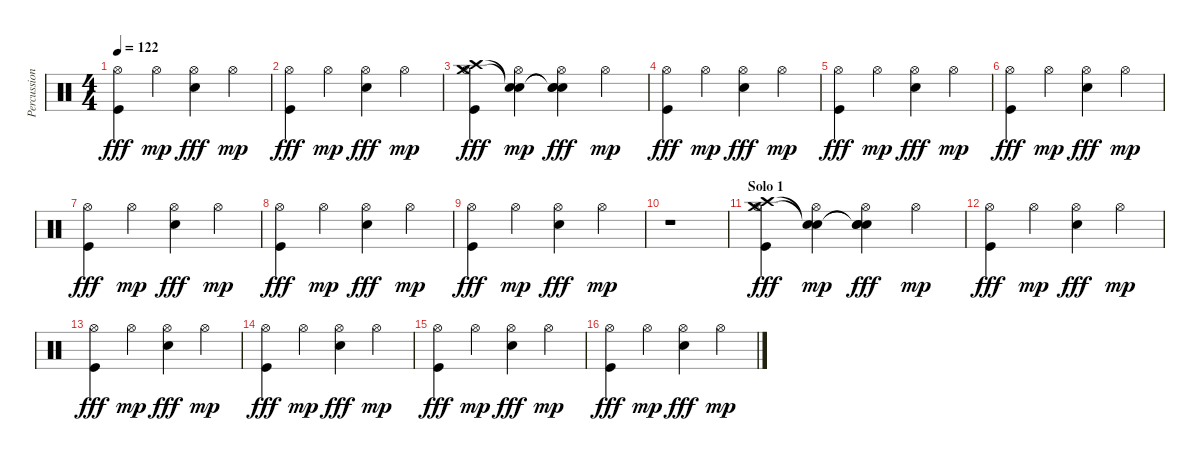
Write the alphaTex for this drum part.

\track ("Percussion" "Percussion") {instrument percussion}
\staff {score}
\articulation defaults
\ts (4 4)
\tempo 122
\clef neutral
\ks c
("Hi-Hat (open)" "Kick (hit)").4{dy fff} "Hi-Hat (open)".4{dy mp} ("Hi-Hat (open)" "Snare (hit) 2").4{dy fff} "Hi-Hat (open)".4{dy mp} |
("Hi-Hat (open)" "Kick (hit)").4{dy fff} "Hi-Hat (open)".4{dy mp} ("Hi-Hat (open)" "Snare (hit) 2").4{dy fff} "Hi-Hat (open)".4{dy mp} |
("Hi-Hat (open)" "Crash high (hit)" "Crash medium (hit)" "Kick (hit)").4{dy fff} ("Hi-Hat (open)" "Snare (hit)"{t} "Snare (hit)"{t}).4{dy mp} ("Hi-Hat (open)" "Snare (hit)"{t} "Snare (hit)"{t} "Snare (hit) 2").4{dy fff} "Hi-Hat (open)".4{dy mp} |
("Hi-Hat (open)" "Kick (hit)").4{dy fff} "Hi-Hat (open)".4{dy mp} ("Hi-Hat (open)" "Snare (hit) 2").4{dy fff} "Hi-Hat (open)".4{dy mp} |
("Hi-Hat (open)" "Kick (hit)").4{dy fff} "Hi-Hat (open)".4{dy mp} ("Hi-Hat (open)" "Snare (hit) 2").4{dy fff} "Hi-Hat (open)".4{dy mp} |
("Hi-Hat (open)" "Kick (hit)").4{dy fff} "Hi-Hat (open)".4{dy mp} ("Hi-Hat (open)" "Snare (hit) 2").4{dy fff} "Hi-Hat (open)".4{dy mp} |
("Hi-Hat (open)" "Kick (hit)").4{dy fff} "Hi-Hat (open)".4{dy mp} ("Hi-Hat (open)" "Snare (hit) 2").4{dy fff} "Hi-Hat (open)".4{dy mp} |
("Hi-Hat (open)" "Kick (hit)").4{dy fff} "Hi-Hat (open)".4{dy mp} ("Hi-Hat (open)" "Snare (hit) 2").4{dy fff} "Hi-Hat (open)".4{dy mp} |
("Hi-Hat (open)" "Kick (hit)").4{dy fff} "Hi-Hat (open)".4{dy mp} ("Hi-Hat (open)" "Snare (hit) 2").4{dy fff} "Hi-Hat (open)".4{dy mp} |
r.1 |
\section ("" "Solo 1")
("Hi-Hat (open)" "Crash high (hit)" "Crash medium (hit)" "Kick (hit)").4{dy fff} ("Hi-Hat (open)" "Snare (hit)"{t} "Snare (hit)"{t}).4{dy mp} ("Hi-Hat (open)" "Snare (hit)"{t} "Snare (hit)"{t} "Snare (hit) 2").4{dy fff} "Hi-Hat (open)".4{dy mp} |
("Hi-Hat (open)" "Kick (hit)").4{dy fff} "Hi-Hat (open)".4{dy mp} ("Hi-Hat (open)" "Snare (hit) 2").4{dy fff} "Hi-Hat (open)".4{dy mp} |
("Hi-Hat (open)" "Kick (hit)").4{dy fff} "Hi-Hat (open)".4{dy mp} ("Hi-Hat (open)" "Snare (hit) 2").4{dy fff} "Hi-Hat (open)".4{dy mp} |
("Hi-Hat (open)" "Kick (hit)").4{dy fff} "Hi-Hat (open)".4{dy mp} ("Hi-Hat (open)" "Snare (hit) 2").4{dy fff} "Hi-Hat (open)".4{dy mp} |
("Hi-Hat (open)" "Kick (hit)").4{dy fff} "Hi-Hat (open)".4{dy mp} ("Hi-Hat (open)" "Snare (hit) 2").4{dy fff} "Hi-Hat (open)".4{dy mp} |
("Hi-Hat (open)" "Kick (hit)").4{dy fff} "Hi-Hat (open)".4{dy mp} ("Hi-Hat (open)" "Snare (hit) 2").4{dy fff} "Hi-Hat (open)".4{dy mp}
